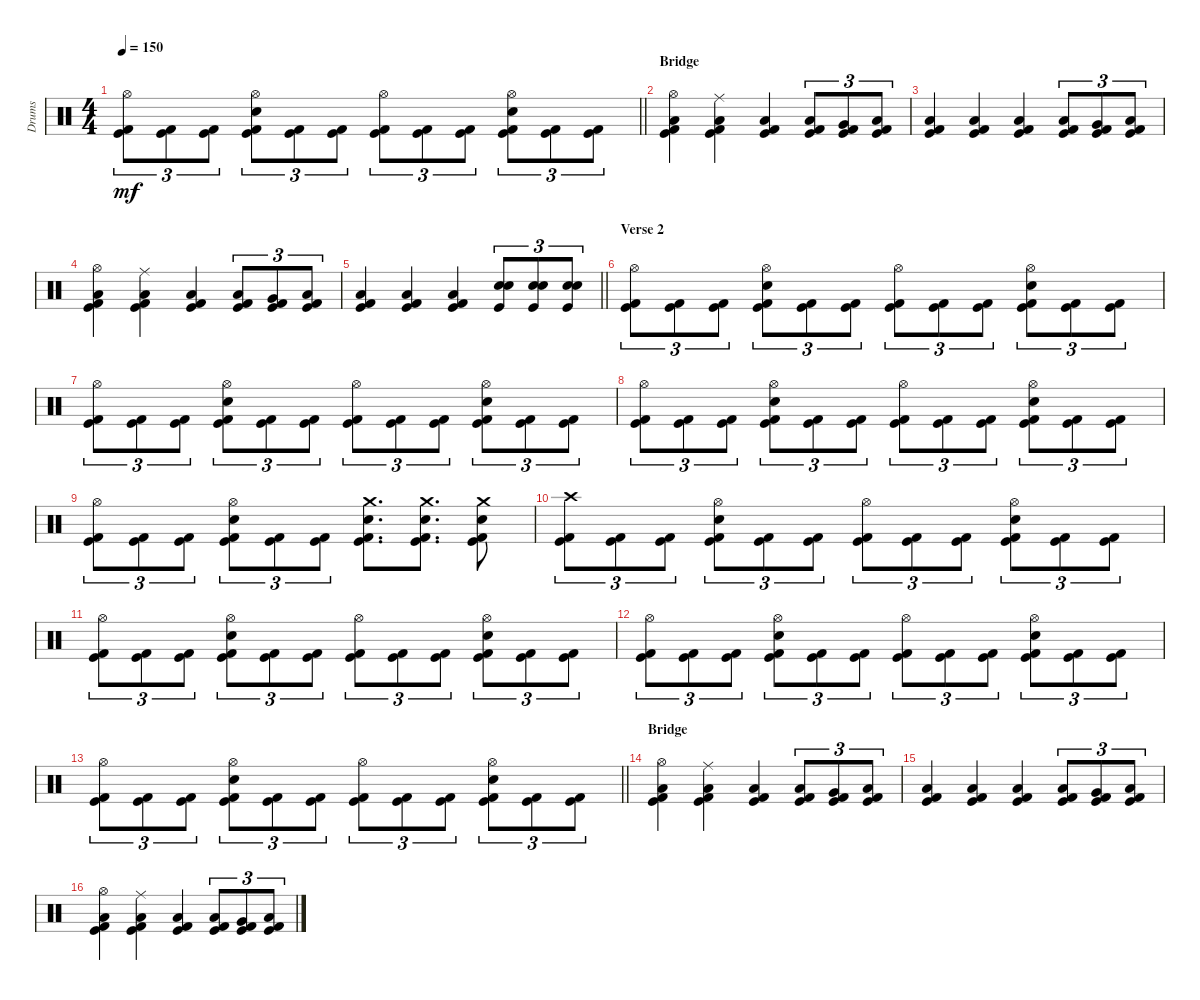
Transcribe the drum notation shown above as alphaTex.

\track ("Drums" "Drums") {instrument percussion}
\staff {score}
\articulation defaults
\ts (4 4)
\tempo 150
\clef neutral
\barLineRight lightlight
\ks c
("Hi-Hat (open)" "Kick (hit) 2" "Kick (hit)").8{tu (3 2) dy mf} ("Kick (hit) 2" "Kick (hit)").8{tu (3 2)} ("Kick (hit) 2" "Kick (hit)").8{tu (3 2)} ("Hi-Hat (open)" "Electric Snare (hit)" "Kick (hit) 2" "Kick (hit)").8{tu (3 2)} ("Kick (hit) 2" "Kick (hit)").8{tu (3 2)} ("Kick (hit) 2" "Kick (hit)").8{tu (3 2)} ("Hi-Hat (open)" "Kick (hit) 2" "Kick (hit)").8{tu (3 2)} ("Kick (hit) 2" "Kick (hit)").8{tu (3 2)} ("Kick (hit) 2" "Kick (hit)").8{tu (3 2)} ("Hi-Hat (open)" "Electric Snare (hit)" "Kick (hit) 2" "Kick (hit)").8{tu (3 2)} ("Kick (hit) 2" "Kick (hit)").8{tu (3 2)} ("Kick (hit) 2" "Kick (hit)").8{tu (3 2)} |
\section ("" "Bridge")
("Hi-Hat (open)" "Low Floor Tom (hit)" "Kick (hit) 2" "Kick (hit)").4 ("Ride (middle)" "Low Floor Tom (hit)" "Kick (hit) 2" "Kick (hit)").4 ("Low Floor Tom (hit)" "Kick (hit) 2" "Kick (hit)").4 ("Low Tom (hit)" "Kick (hit) 2" "Kick (hit)").8{tu (3 2)} ("Very Low Tom (hit)" "Kick (hit) 2" "Kick (hit)").8{tu (3 2)} ("Low Floor Tom (hit)" "Kick (hit) 2" "Kick (hit)").8{tu (3 2)} |
("Low Floor Tom (hit)" "Kick (hit) 2" "Kick (hit)").4 ("Low Floor Tom (hit)" "Kick (hit) 2" "Kick (hit)").4 ("Low Floor Tom (hit)" "Kick (hit) 2" "Kick (hit)").4 ("Low Floor Tom (hit)" "Kick (hit) 2" "Kick (hit)").8{tu (3 2)} ("Very Low Tom (hit)" "Kick (hit) 2" "Kick (hit)").8{tu (3 2)} ("Low Tom (hit)" "Kick (hit) 2" "Kick (hit)").8{tu (3 2)} |
("Hi-Hat (open)" "Low Floor Tom (hit)" "Kick (hit) 2" "Kick (hit)").4 ("Ride (middle)" "Low Floor Tom (hit)" "Kick (hit) 2" "Kick (hit)").4 ("Low Floor Tom (hit)" "Kick (hit) 2" "Kick (hit)").4 ("Low Tom (hit)" "Kick (hit) 2" "Kick (hit)").8{tu (3 2)} ("Very Low Tom (hit)" "Kick (hit) 2" "Kick (hit)").8{tu (3 2)} ("Low Floor Tom (hit)" "Kick (hit) 2" "Kick (hit)").8{tu (3 2)} |
\barLineRight lightlight
("Low Floor Tom (hit)" "Kick (hit) 2" "Kick (hit)").4 ("Low Floor Tom (hit)" "Kick (hit) 2" "Kick (hit)").4 ("Low Floor Tom (hit)" "Kick (hit) 2" "Kick (hit)").4 ("Electric Snare (hit)" "Electric Snare (hit)" "Kick (hit)").8{tu (3 2)} ("Electric Snare (hit)" "Electric Snare (hit)" "Kick (hit)").8{tu (3 2)} ("Electric Snare (hit)" "Electric Snare (hit)" "Kick (hit)").8{tu (3 2)} |
\section ("" "Verse 2")
("Hi-Hat (open)" "Kick (hit) 2" "Kick (hit)").8{tu (3 2)} ("Kick (hit) 2" "Kick (hit)").8{tu (3 2)} ("Kick (hit) 2" "Kick (hit)").8{tu (3 2)} ("Hi-Hat (open)" "Electric Snare (hit)" "Kick (hit) 2" "Kick (hit)").8{tu (3 2)} ("Kick (hit) 2" "Kick (hit)").8{tu (3 2)} ("Kick (hit) 2" "Kick (hit)").8{tu (3 2)} ("Hi-Hat (open)" "Kick (hit) 2" "Kick (hit)").8{tu (3 2)} ("Kick (hit) 2" "Kick (hit)").8{tu (3 2)} ("Kick (hit) 2" "Kick (hit)").8{tu (3 2)} ("Hi-Hat (open)" "Electric Snare (hit)" "Kick (hit) 2" "Kick (hit)").8{tu (3 2)} ("Kick (hit) 2" "Kick (hit)").8{tu (3 2)} ("Kick (hit) 2" "Kick (hit)").8{tu (3 2)} |
("Hi-Hat (open)" "Kick (hit) 2" "Kick (hit)").8{tu (3 2)} ("Kick (hit) 2" "Kick (hit)").8{tu (3 2)} ("Kick (hit) 2" "Kick (hit)").8{tu (3 2)} ("Hi-Hat (open)" "Electric Snare (hit)" "Kick (hit) 2" "Kick (hit)").8{tu (3 2)} ("Kick (hit) 2" "Kick (hit)").8{tu (3 2)} ("Kick (hit) 2" "Kick (hit)").8{tu (3 2)} ("Hi-Hat (open)" "Kick (hit) 2" "Kick (hit)").8{tu (3 2)} ("Kick (hit) 2" "Kick (hit)").8{tu (3 2)} ("Kick (hit) 2" "Kick (hit)").8{tu (3 2)} ("Hi-Hat (open)" "Electric Snare (hit)" "Kick (hit) 2" "Kick (hit)").8{tu (3 2)} ("Kick (hit) 2" "Kick (hit)").8{tu (3 2)} ("Kick (hit) 2" "Kick (hit)").8{tu (3 2)} |
("Hi-Hat (open)" "Kick (hit) 2" "Kick (hit)").8{tu (3 2)} ("Kick (hit) 2" "Kick (hit)").8{tu (3 2)} ("Kick (hit) 2" "Kick (hit)").8{tu (3 2)} ("Hi-Hat (open)" "Electric Snare (hit)" "Kick (hit) 2" "Kick (hit)").8{tu (3 2)} ("Kick (hit) 2" "Kick (hit)").8{tu (3 2)} ("Kick (hit) 2" "Kick (hit)").8{tu (3 2)} ("Hi-Hat (open)" "Kick (hit) 2" "Kick (hit)").8{tu (3 2)} ("Kick (hit) 2" "Kick (hit)").8{tu (3 2)} ("Kick (hit) 2" "Kick (hit)").8{tu (3 2)} ("Hi-Hat (open)" "Electric Snare (hit)" "Kick (hit) 2" "Kick (hit)").8{tu (3 2)} ("Kick (hit) 2" "Kick (hit)").8{tu (3 2)} ("Kick (hit) 2" "Kick (hit)").8{tu (3 2)} |
("Hi-Hat (open)" "Kick (hit) 2" "Kick (hit)").8{tu (3 2)} ("Kick (hit) 2" "Kick (hit)").8{tu (3 2)} ("Kick (hit) 2" "Kick (hit)").8{tu (3 2)} ("Hi-Hat (open)" "Electric Snare (hit)" "Kick (hit) 2" "Kick (hit)").8{tu (3 2)} ("Kick (hit) 2" "Kick (hit)").8{tu (3 2)} ("Kick (hit) 2" "Kick (hit)").8{tu (3 2)} ("Crash medium (hit)" "Electric Snare (hit)" "Kick (hit)" "Kick (hit) 2").8{d} ("Crash medium (hit)" "Electric Snare (hit)" "Kick (hit)" "Kick (hit) 2").8{d} ("Crash medium (hit)" "Electric Snare (hit)" "Kick (hit)" "Kick (hit) 2").8 |
("Crash high (hit)" "Kick (hit) 2" "Kick (hit)").8{tu (3 2)} ("Kick (hit) 2" "Kick (hit)").8{tu (3 2)} ("Kick (hit) 2" "Kick (hit)").8{tu (3 2)} ("Hi-Hat (open)" "Electric Snare (hit)" "Kick (hit) 2" "Kick (hit)").8{tu (3 2)} ("Kick (hit) 2" "Kick (hit)").8{tu (3 2)} ("Kick (hit) 2" "Kick (hit)").8{tu (3 2)} ("Hi-Hat (open)" "Kick (hit) 2" "Kick (hit)").8{tu (3 2)} ("Kick (hit) 2" "Kick (hit)").8{tu (3 2)} ("Kick (hit) 2" "Kick (hit)").8{tu (3 2)} ("Hi-Hat (open)" "Electric Snare (hit)" "Kick (hit) 2" "Kick (hit)").8{tu (3 2)} ("Kick (hit) 2" "Kick (hit)").8{tu (3 2)} ("Kick (hit) 2" "Kick (hit)").8{tu (3 2)} |
("Hi-Hat (open)" "Kick (hit) 2" "Kick (hit)").8{tu (3 2)} ("Kick (hit) 2" "Kick (hit)").8{tu (3 2)} ("Kick (hit) 2" "Kick (hit)").8{tu (3 2)} ("Hi-Hat (open)" "Electric Snare (hit)" "Kick (hit) 2" "Kick (hit)").8{tu (3 2)} ("Kick (hit) 2" "Kick (hit)").8{tu (3 2)} ("Kick (hit) 2" "Kick (hit)").8{tu (3 2)} ("Hi-Hat (open)" "Kick (hit) 2" "Kick (hit)").8{tu (3 2)} ("Kick (hit) 2" "Kick (hit)").8{tu (3 2)} ("Kick (hit) 2" "Kick (hit)").8{tu (3 2)} ("Hi-Hat (open)" "Electric Snare (hit)" "Kick (hit) 2" "Kick (hit)").8{tu (3 2)} ("Kick (hit) 2" "Kick (hit)").8{tu (3 2)} ("Kick (hit) 2" "Kick (hit)").8{tu (3 2)} |
("Hi-Hat (open)" "Kick (hit) 2" "Kick (hit)").8{tu (3 2)} ("Kick (hit) 2" "Kick (hit)").8{tu (3 2)} ("Kick (hit) 2" "Kick (hit)").8{tu (3 2)} ("Hi-Hat (open)" "Electric Snare (hit)" "Kick (hit) 2" "Kick (hit)").8{tu (3 2)} ("Kick (hit) 2" "Kick (hit)").8{tu (3 2)} ("Kick (hit) 2" "Kick (hit)").8{tu (3 2)} ("Hi-Hat (open)" "Kick (hit) 2" "Kick (hit)").8{tu (3 2)} ("Kick (hit) 2" "Kick (hit)").8{tu (3 2)} ("Kick (hit) 2" "Kick (hit)").8{tu (3 2)} ("Hi-Hat (open)" "Electric Snare (hit)" "Kick (hit) 2" "Kick (hit)").8{tu (3 2)} ("Kick (hit) 2" "Kick (hit)").8{tu (3 2)} ("Kick (hit) 2" "Kick (hit)").8{tu (3 2)} |
\barLineRight lightlight
("Hi-Hat (open)" "Kick (hit) 2" "Kick (hit)").8{tu (3 2)} ("Kick (hit) 2" "Kick (hit)").8{tu (3 2)} ("Kick (hit) 2" "Kick (hit)").8{tu (3 2)} ("Hi-Hat (open)" "Electric Snare (hit)" "Kick (hit) 2" "Kick (hit)").8{tu (3 2)} ("Kick (hit) 2" "Kick (hit)").8{tu (3 2)} ("Kick (hit) 2" "Kick (hit)").8{tu (3 2)} ("Hi-Hat (open)" "Kick (hit) 2" "Kick (hit)").8{tu (3 2)} ("Kick (hit) 2" "Kick (hit)").8{tu (3 2)} ("Kick (hit) 2" "Kick (hit)").8{tu (3 2)} ("Hi-Hat (open)" "Electric Snare (hit)" "Kick (hit) 2" "Kick (hit)").8{tu (3 2)} ("Kick (hit) 2" "Kick (hit)").8{tu (3 2)} ("Kick (hit) 2" "Kick (hit)").8{tu (3 2)} |
\section ("" "Bridge")
("Hi-Hat (open)" "Low Floor Tom (hit)" "Kick (hit) 2" "Kick (hit)").4 ("Ride (middle)" "Low Floor Tom (hit)" "Kick (hit) 2" "Kick (hit)").4 ("Low Floor Tom (hit)" "Kick (hit) 2" "Kick (hit)").4 ("Low Tom (hit)" "Kick (hit) 2" "Kick (hit)").8{tu (3 2)} ("Very Low Tom (hit)" "Kick (hit) 2" "Kick (hit)").8{tu (3 2)} ("Low Floor Tom (hit)" "Kick (hit) 2" "Kick (hit)").8{tu (3 2)} |
("Low Floor Tom (hit)" "Kick (hit) 2" "Kick (hit)").4 ("Low Floor Tom (hit)" "Kick (hit) 2" "Kick (hit)").4 ("Low Floor Tom (hit)" "Kick (hit) 2" "Kick (hit)").4 ("Low Floor Tom (hit)" "Kick (hit) 2" "Kick (hit)").8{tu (3 2)} ("Very Low Tom (hit)" "Kick (hit) 2" "Kick (hit)").8{tu (3 2)} ("Low Tom (hit)" "Kick (hit) 2" "Kick (hit)").8{tu (3 2)} |
("Hi-Hat (open)" "Low Floor Tom (hit)" "Kick (hit) 2" "Kick (hit)").4 ("Ride (middle)" "Low Floor Tom (hit)" "Kick (hit) 2" "Kick (hit)").4 ("Low Floor Tom (hit)" "Kick (hit) 2" "Kick (hit)").4 ("Low Tom (hit)" "Kick (hit) 2" "Kick (hit)").8{tu (3 2)} ("Very Low Tom (hit)" "Kick (hit) 2" "Kick (hit)").8{tu (3 2)} ("Low Floor Tom (hit)" "Kick (hit) 2" "Kick (hit)").8{tu (3 2)}
